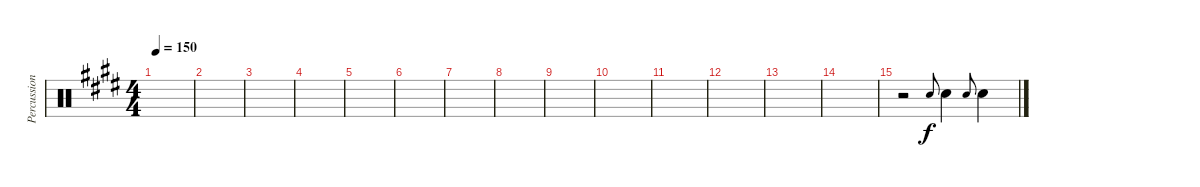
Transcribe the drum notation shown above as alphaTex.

\track ("Percussion" "Percussion") {instrument percussion}
\staff {score}
\articulation defaults
\ts (4 4)
\tempo 150
\clef neutral
\ks e
|
|
|
|
|
|
|
|
|
|
|
|
|
|
r.2 "Hand Clap (hit)".8{gr onbeat} "Hand Clap (hit)".4 "Hand Clap (hit)".8{gr onbeat} "Hand Clap (hit)".4
